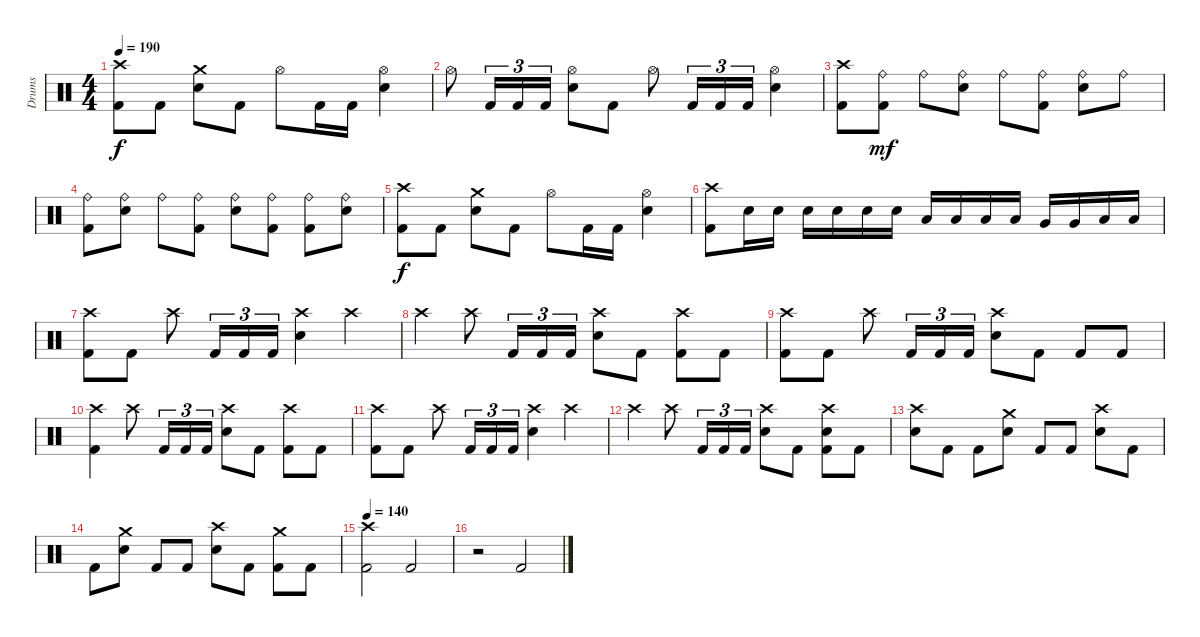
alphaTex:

\track ("Drums" "Drums") {instrument percussion}
\staff {score}
\articulation defaults
\ts (4 4)
\tempo 190
\clef neutral
\ks c
("Crash high (hit)" "Kick (hit) 2").8{dy f} "Kick (hit) 2".8 ("Crash medium (hit)" "Electric Snare (hit)").8 "Kick (hit) 2".8 "Hi-Hat (open)".8 "Kick (hit) 2".16 "Kick (hit) 2".16 ("Hi-Hat (open)" "Electric Snare (hit)").4 |
"Hi-Hat (open)".8 "Kick (hit) 2".16{tu (3 2)} "Kick (hit) 2".16{tu (3 2)} "Kick (hit) 2".16{tu (3 2)} ("Hi-Hat (open)" "Electric Snare (hit)").8 "Kick (hit) 2".8 "Hi-Hat (open)".8 "Kick (hit) 2".16{tu (3 2)} "Kick (hit) 2".16{tu (3 2)} "Kick (hit) 2".16{tu (3 2)} ("Hi-Hat (open)" "Electric Snare (hit)").4 |
("Crash high (hit)" "Kick (hit) 2").8 ("Ride (bell)" "Kick (hit) 2").8{dy mf} "Ride (bell)".8 ("Ride (bell)" "Electric Snare (hit)").8 "Ride (bell)".8 ("Ride (bell)" "Kick (hit) 2").8 ("Ride (bell)" "Electric Snare (hit)").8 "Ride (bell)".8 |
("Ride (bell)" "Kick (hit) 2").8 ("Ride (bell)" "Electric Snare (hit)").8 "Ride (bell)".8 ("Ride (bell)" "Kick (hit) 2").8 ("Ride (bell)" "Electric Snare (hit)").8 ("Ride (bell)" "Kick (hit) 2").8 ("Ride (bell)" "Kick (hit) 2").8 ("Ride (bell)" "Electric Snare (hit)").8 |
("Crash high (hit)" "Kick (hit) 2").8{dy f} "Kick (hit) 2".8 ("Crash medium (hit)" "Electric Snare (hit)").8 "Kick (hit) 2".8 "Hi-Hat (open)".8 "Kick (hit) 2".16 "Kick (hit) 2".16 ("Hi-Hat (open)" "Electric Snare (hit)").4 |
("Crash high (hit)" "Kick (hit) 2").8 "Electric Snare (hit)".16 "Electric Snare (hit)".16 "Electric Snare (hit)".16 "Electric Snare (hit)".16 "Electric Snare (hit)".16 "Electric Snare (hit)".16 "Low Tom (hit)".16 "Low Tom (hit)".16 "Low Tom (hit)".16 "Low Tom (hit)".16 "Very Low Tom (hit)".16 "Very Low Tom (hit)".16 "Low Floor Tom (hit)".16 "Low Floor Tom (hit)".16 |
("Crash high (hit)" "Kick (hit) 2").8 "Kick (hit) 2".8 "Crash high (hit)".8 "Kick (hit) 2".16{tu (3 2)} "Kick (hit) 2".16{tu (3 2)} "Kick (hit) 2".16{tu (3 2)} ("Crash high (hit)" "Electric Snare (hit)").4 "Crash high (hit)".4 |
"Crash high (hit)".4 "Crash high (hit)".8 "Kick (hit) 2".16{tu (3 2)} "Kick (hit) 2".16{tu (3 2)} "Kick (hit) 2".16{tu (3 2)} ("Crash high (hit)" "Electric Snare (hit)").8 "Kick (hit) 2".8 ("Crash high (hit)" "Kick (hit) 2").8 "Kick (hit) 2".8 |
("Crash high (hit)" "Kick (hit) 2").8 "Kick (hit) 2".8 "Crash high (hit)".8 "Kick (hit) 2".16{tu (3 2)} "Kick (hit) 2".16{tu (3 2)} "Kick (hit) 2".16{tu (3 2)} ("Crash high (hit)" "Electric Snare (hit)").8 "Kick (hit) 2".8 "Kick (hit) 2".8 "Kick (hit) 2".8 |
("Crash high (hit)" "Kick (hit) 2").4 "Crash high (hit)".8 "Kick (hit) 2".16{tu (3 2)} "Kick (hit) 2".16{tu (3 2)} "Kick (hit) 2".16{tu (3 2)} ("Crash high (hit)" "Electric Snare (hit)").8 "Kick (hit) 2".8 ("Crash high (hit)" "Kick (hit) 2").8 "Kick (hit) 2".8 |
("Crash high (hit)" "Kick (hit) 2").8 "Kick (hit) 2".8 "Crash high (hit)".8 "Kick (hit) 2".16{tu (3 2)} "Kick (hit) 2".16{tu (3 2)} "Kick (hit) 2".16{tu (3 2)} ("Crash high (hit)" "Electric Snare (hit)").4 "Crash high (hit)".4 |
"Crash high (hit)".4 "Crash high (hit)".8 "Kick (hit) 2".16{tu (3 2)} "Kick (hit) 2".16{tu (3 2)} "Kick (hit) 2".16{tu (3 2)} ("Crash high (hit)" "Electric Snare (hit)").8 "Kick (hit) 2".8 ("Crash high (hit)" "Electric Snare (hit)" "Kick (hit) 2").8 "Kick (hit) 2".8 |
("Crash high (hit)" "Electric Snare (hit)").8 "Kick (hit) 2".8 "Kick (hit) 2".8 ("Crash medium (hit)" "Electric Snare (hit)").8 "Kick (hit) 2".8 "Kick (hit) 2".8 ("Crash high (hit)" "Electric Snare (hit)").8 "Kick (hit) 2".8 |
"Kick (hit) 2".8 ("Crash medium (hit)" "Electric Snare (hit)").8 "Kick (hit) 2".8 "Kick (hit) 2".8 ("Crash high (hit)" "Electric Snare (hit)").8 "Kick (hit) 2".8 ("Crash medium (hit)" "Kick (hit) 2").8 "Kick (hit) 2".8 |
\tempo 140
("Crash high (hit)" "Kick (hit) 2").2 "Kick (hit) 2".2 |
r.2 "Kick (hit) 2".2
